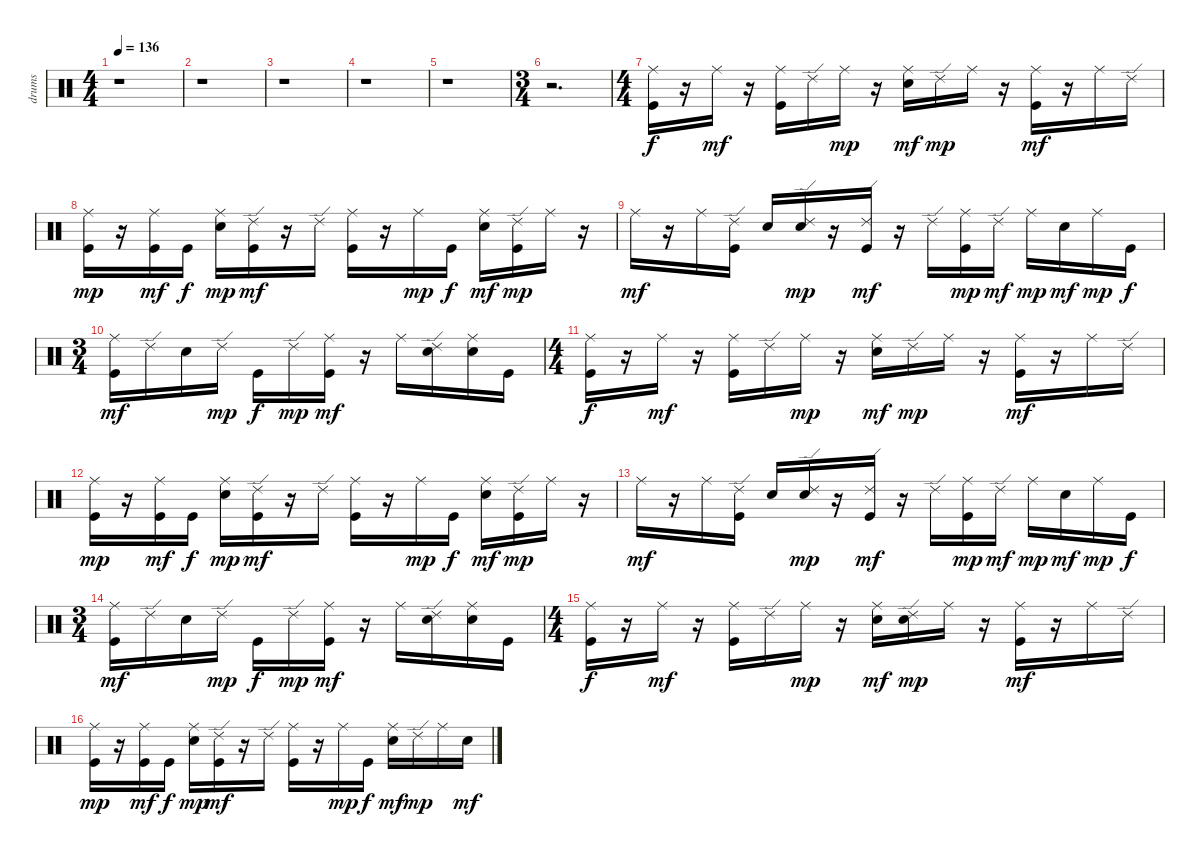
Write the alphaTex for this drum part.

\track ("drums   " "drums   ") {instrument percussion}
\staff {score}
\articulation defaults
\ts (4 4)
\tempo 136
\clef neutral
\ks c
r.1{dy f} |
r.1 |
r.1 |
r.1 |
r.1 |
\ts (3 4)
r.2{d} |
\ts (4 4)
("Kick (hit)" "Ride (middle)").16 r.16 "Ride (middle)".16{dy mf} r.16 ("Kick (hit)" "Ride (middle)").16 "Ride (edge) 2".16 "Ride (middle)".16{dy mp} r.16 ("Electric Snare (hit)" "Ride (middle)").16{dy mf} "Ride (edge) 2".16{dy mp} "Ride (middle)".16 r.16 ("Kick (hit)" "Ride (middle)").16{dy mf} r.16 "Ride (middle)".16 "Ride (edge) 2".16 |
("Kick (hit)" "Ride (middle)").16{dy mp} r.16 ("Kick (hit)" "Ride (middle)").16{dy mf} "Kick (hit)".16{dy f} ("Electric Snare (hit)" "Ride (middle)").16{dy mp} ("Kick (hit)" "Ride (edge) 2").16{dy mf} r.16 "Ride (edge) 2".16 ("Kick (hit)" "Ride (middle)").16 r.16 "Ride (middle)".16{dy mp} "Kick (hit)".16{dy f} ("Electric Snare (hit)" "Ride (middle)").16{dy mf} ("Kick (hit)" "Ride (edge) 2").16{dy mp} "Ride (middle)".16 r.16 |
"Ride (middle)".16{dy mf} r.16 "Ride (middle)".16 ("Kick (hit)" "Ride (edge) 2").16 "Electric Snare (hit)".16 ("Electric Snare (hit)" "Ride (edge) 2").16{dy mp} r.16 ("Kick (hit)" "Ride (edge) 2").16{dy mf} r.16 "Ride (edge) 2".16 ("Kick (hit)" "Ride (middle)").16{dy mp} "Ride (edge) 2".16{dy mf} "Ride (middle)".16{dy mp} "Electric Snare (hit)".16{dy mf} "Ride (middle)".16{dy mp} "Kick (hit)".16{dy f} |
\ts (3 4)
("Kick (hit)" "Ride (middle)").16{dy mf} "Ride (edge) 2".16 "Electric Snare (hit)".16 "Ride (edge) 2".16{dy mp} "Kick (hit)".16{dy f} "Ride (edge) 2".16{dy mp} ("Kick (hit)" "Ride (middle)").16{dy mf} r.16 "Ride (middle)".16 ("Electric Snare (hit)" "Ride (edge) 2").16 ("Electric Snare (hit)" "Ride (middle)").16 "Kick (hit)".16 |
\ts (4 4)
("Kick (hit)" "Ride (middle)").16{dy f} r.16 "Ride (middle)".16{dy mf} r.16 ("Kick (hit)" "Ride (middle)").16 "Ride (edge) 2".16 "Ride (middle)".16{dy mp} r.16 ("Electric Snare (hit)" "Ride (middle)").16{dy mf} "Ride (edge) 2".16{dy mp} "Ride (middle)".16 r.16 ("Kick (hit)" "Ride (middle)").16{dy mf} r.16 "Ride (middle)".16 "Ride (edge) 2".16 |
("Kick (hit)" "Ride (middle)").16{dy mp} r.16 ("Kick (hit)" "Ride (middle)").16{dy mf} "Kick (hit)".16{dy f} ("Electric Snare (hit)" "Ride (middle)").16{dy mp} ("Kick (hit)" "Ride (edge) 2").16{dy mf} r.16 "Ride (edge) 2".16 ("Kick (hit)" "Ride (middle)").16 r.16 "Ride (middle)".16{dy mp} "Kick (hit)".16{dy f} ("Electric Snare (hit)" "Ride (middle)").16{dy mf} ("Kick (hit)" "Ride (edge) 2").16{dy mp} "Ride (middle)".16 r.16 |
"Ride (middle)".16{dy mf} r.16 "Ride (middle)".16 ("Kick (hit)" "Ride (edge) 2").16 "Electric Snare (hit)".16 ("Electric Snare (hit)" "Ride (edge) 2").16{dy mp} r.16 ("Kick (hit)" "Ride (edge) 2").16{dy mf} r.16 "Ride (edge) 2".16 ("Kick (hit)" "Ride (middle)").16{dy mp} "Ride (edge) 2".16{dy mf} "Ride (middle)".16{dy mp} "Electric Snare (hit)".16{dy mf} "Ride (middle)".16{dy mp} "Kick (hit)".16{dy f} |
\ts (3 4)
("Kick (hit)" "Ride (middle)").16{dy mf} "Ride (edge) 2".16 "Electric Snare (hit)".16 "Ride (edge) 2".16{dy mp} "Kick (hit)".16{dy f} "Ride (edge) 2".16{dy mp} ("Kick (hit)" "Ride (middle)").16{dy mf} r.16 "Ride (middle)".16 ("Electric Snare (hit)" "Ride (edge) 2").16 ("Electric Snare (hit)" "Ride (middle)").16 "Kick (hit)".16 |
\ts (4 4)
("Kick (hit)" "Ride (middle)").16{dy f} r.16 "Ride (middle)".16{dy mf} r.16 ("Kick (hit)" "Ride (middle)").16 "Ride (edge) 2".16 "Ride (middle)".16{dy mp} r.16 ("Electric Snare (hit)" "Ride (middle)").16{dy mf} ("Electric Snare (hit)" "Ride (edge) 2").16{dy mp} "Ride (middle)".16 r.16 ("Kick (hit)" "Ride (middle)").16{dy mf} r.16 "Ride (middle)".16 "Ride (edge) 2".16 |
("Kick (hit)" "Ride (middle)").16{dy mp} r.16 ("Kick (hit)" "Ride (middle)").16{dy mf} "Kick (hit)".16{dy f} ("Electric Snare (hit)" "Ride (middle)").16{dy mp} ("Kick (hit)" "Ride (edge) 2").16{dy mf} r.16 "Ride (edge) 2".16 ("Kick (hit)" "Ride (middle)").16 r.16 "Ride (middle)".16{dy mp} "Kick (hit)".16{dy f} ("Electric Snare (hit)" "Ride (middle)").16{dy mf} "Ride (edge) 2".16{dy mp} "Ride (middle)".16 "Electric Snare (hit)".16{dy mf}
